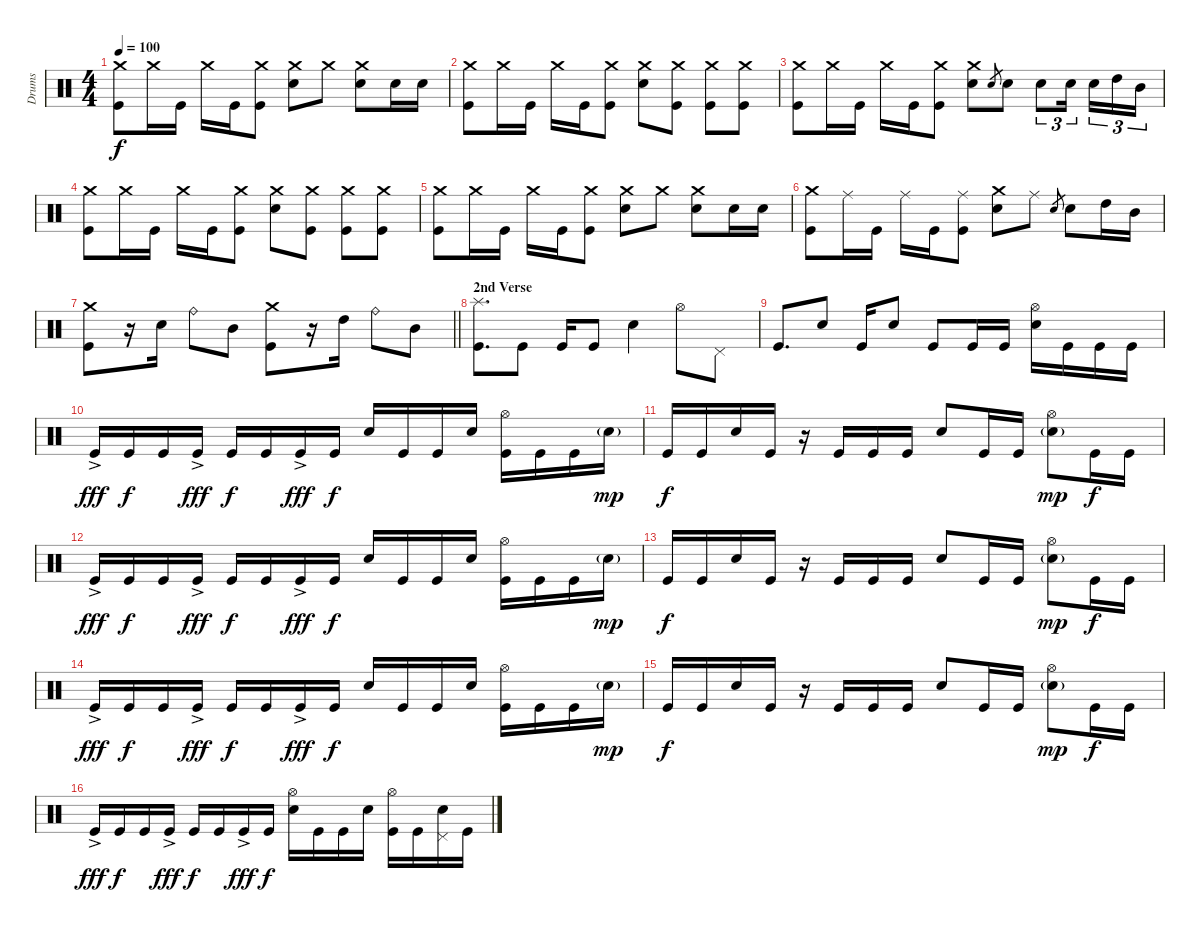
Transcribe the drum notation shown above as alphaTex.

\track ("Drums" "Drums") {instrument percussion}
\staff {score}
\articulation defaults
\ts (4 4)
\tempo 100
\clef neutral
\ks c
("Crash medium (hit)" "Kick (hit)").8{dy f} "Crash medium (hit)".16 "Kick (hit)".16 "Crash medium (hit)".16 "Kick (hit)".16 ("Crash medium (hit)" "Kick (hit)").8 ("Crash medium (hit)" "Electric Snare (hit)").8 "Crash medium (hit)".8 ("Crash medium (hit)" "Electric Snare (hit)").8 "Electric Snare (hit)".16 "Electric Snare (hit)".16 |
("Crash medium (hit)" "Kick (hit)").8 "Crash medium (hit)".16 "Kick (hit)".16 "Crash medium (hit)".16 "Kick (hit)".16 ("Crash medium (hit)" "Kick (hit)").8 ("Crash medium (hit)" "Electric Snare (hit)").8 ("Crash medium (hit)" "Kick (hit)").8 ("Crash medium (hit)" "Kick (hit)").8 ("Crash medium (hit)" "Kick (hit)").8 |
("Crash medium (hit)" "Kick (hit)").8 "Crash medium (hit)".16 "Kick (hit)".16 "Crash medium (hit)".16 "Kick (hit)".16 ("Crash medium (hit)" "Kick (hit)").8 ("Crash medium (hit)" "Electric Snare (hit)").8 "Electric Snare (hit)".8{gr} "Electric Snare (hit)".8 "Electric Snare (hit)".8{tu (3 2)} "Electric Snare (hit)".16{tu (3 2)} "Electric Snare (hit)".16{tu (3 2)} "High Tom (hit)".16{tu (3 2)} "Mid Tom (hit)".16{tu (3 2)} |
("Crash medium (hit)" "Kick (hit)").8 "Crash medium (hit)".16 "Kick (hit)".16 "Crash medium (hit)".16 "Kick (hit)".16 ("Crash medium (hit)" "Kick (hit)").8 ("Crash medium (hit)" "Electric Snare (hit)").8 ("Crash medium (hit)" "Kick (hit)").8 ("Crash medium (hit)" "Kick (hit)").8 ("Crash medium (hit)" "Kick (hit)").8 |
("Crash medium (hit)" "Kick (hit)").8 "Crash medium (hit)".16 "Kick (hit)".16 "Crash medium (hit)".16 "Kick (hit)".16 ("Crash medium (hit)" "Kick (hit)").8 ("Crash medium (hit)" "Electric Snare (hit)").8 "Crash medium (hit)".8 ("Crash medium (hit)" "Electric Snare (hit)").8 "Electric Snare (hit)".16 "Electric Snare (hit)".16 |
("Crash medium (hit)" "Kick (hit)").8 "Ride (middle)".16 "Kick (hit)".16 "Ride (middle)".16 "Kick (hit)".16 ("Ride (middle)" "Kick (hit)").8 ("Crash medium (hit)" "Electric Snare (hit)").8 "Ride (middle)".8 "Electric Snare (hit)".8{gr} "Electric Snare (hit)".8 "High Tom (hit)".16 "Mid Tom (hit)".16 |
\barLineRight lightlight
("Crash medium (hit)" "Kick (hit)").8 r.16 "Electric Snare (hit)".16 "Ride (bell)".8 "Mid Tom (hit)".8 ("Crash medium (hit)" "Kick (hit)").8 r.16 "High Tom (hit)".16 "Ride (bell)".8 "Mid Tom (hit)".8 |
\section ("" "2nd Verse")
("Splash (hit)" "Kick (hit)").8{d volume 6} "Kick (hit)".8 "Kick (hit)".16 "Kick (hit)".8 "Electric Snare (hit)".4 "Hi-Hat (open)".8 "Pedal Hi-Hat (hit)".8 |
"Kick (hit)".8{d} "Electric Snare (hit)".8 "Kick (hit)".16 "Electric Snare (hit)".8 "Kick (hit)".8 "Kick (hit)".16 "Kick (hit)".16 ("Hi-Hat (open)" "Electric Snare (hit)").16 "Kick (hit)".16 "Kick (hit)".16 "Kick (hit)".16 |
"Kick (hit)"{ac}.16{dy fff} "Kick (hit)".16{dy f} "Kick (hit)".16 "Kick (hit)"{ac}.16{dy fff} "Kick (hit)".16{dy f} "Kick (hit)".16 "Kick (hit)"{ac}.16{dy fff} "Kick (hit)".16{dy f} "Electric Snare (hit)".16 "Kick (hit)".16 "Kick (hit)".16 "Electric Snare (hit)".16 ("Hi-Hat (open)" "Kick (hit)").16 "Kick (hit)".16 "Kick (hit)".16 "Electric Snare (hit)"{g}.16{dy mp} |
"Kick (hit)".16{dy f} "Kick (hit)".16 "Electric Snare (hit)".16 "Kick (hit)".16 r.16 "Kick (hit)".16 "Kick (hit)".16 "Kick (hit)".16 "Electric Snare (hit)".8 "Kick (hit)".16 "Kick (hit)".16 ("Hi-Hat (open)" "Electric Snare (hit)"{g}).8{dy mp} "Kick (hit)".16{dy f} "Kick (hit)".16 |
"Kick (hit)"{ac}.16{dy fff} "Kick (hit)".16{dy f} "Kick (hit)".16 "Kick (hit)"{ac}.16{dy fff} "Kick (hit)".16{dy f} "Kick (hit)".16 "Kick (hit)"{ac}.16{dy fff} "Kick (hit)".16{dy f} "Electric Snare (hit)".16 "Kick (hit)".16 "Kick (hit)".16 "Electric Snare (hit)".16 ("Hi-Hat (open)" "Kick (hit)").16 "Kick (hit)".16 "Kick (hit)".16 "Electric Snare (hit)"{g}.16{dy mp} |
"Kick (hit)".16{dy f} "Kick (hit)".16 "Electric Snare (hit)".16 "Kick (hit)".16 r.16 "Kick (hit)".16 "Kick (hit)".16 "Kick (hit)".16 "Electric Snare (hit)".8 "Kick (hit)".16 "Kick (hit)".16 ("Hi-Hat (open)" "Electric Snare (hit)"{g}).8{dy mp} "Kick (hit)".16{dy f} "Kick (hit)".16 |
"Kick (hit)"{ac}.16{dy fff} "Kick (hit)".16{dy f} "Kick (hit)".16 "Kick (hit)"{ac}.16{dy fff} "Kick (hit)".16{dy f} "Kick (hit)".16 "Kick (hit)"{ac}.16{dy fff} "Kick (hit)".16{dy f} "Electric Snare (hit)".16 "Kick (hit)".16 "Kick (hit)".16 "Electric Snare (hit)".16 ("Hi-Hat (open)" "Kick (hit)").16 "Kick (hit)".16 "Kick (hit)".16 "Electric Snare (hit)"{g}.16{dy mp} |
"Kick (hit)".16{dy f} "Kick (hit)".16 "Electric Snare (hit)".16 "Kick (hit)".16 r.16 "Kick (hit)".16 "Kick (hit)".16 "Kick (hit)".16 "Electric Snare (hit)".8 "Kick (hit)".16 "Kick (hit)".16 ("Hi-Hat (open)" "Electric Snare (hit)"{g}).8{dy mp} "Kick (hit)".16{dy f} "Kick (hit)".16 |
"Kick (hit)"{ac}.16{dy fff} "Kick (hit)".16{dy f} "Kick (hit)".16 "Kick (hit)"{ac}.16{dy fff} "Kick (hit)".16{dy f} "Kick (hit)".16 "Kick (hit)"{ac}.16{dy fff} "Kick (hit)".16{dy f} ("Hi-Hat (open)" "Electric Snare (hit)").16 "Kick (hit)".16 "Kick (hit)".16 "Electric Snare (hit)".16 ("Hi-Hat (open)" "Kick (hit)").16 "Kick (hit)".16 ("Pedal Hi-Hat (hit)" "Electric Snare (hit)").16 "Kick (hit)".16
